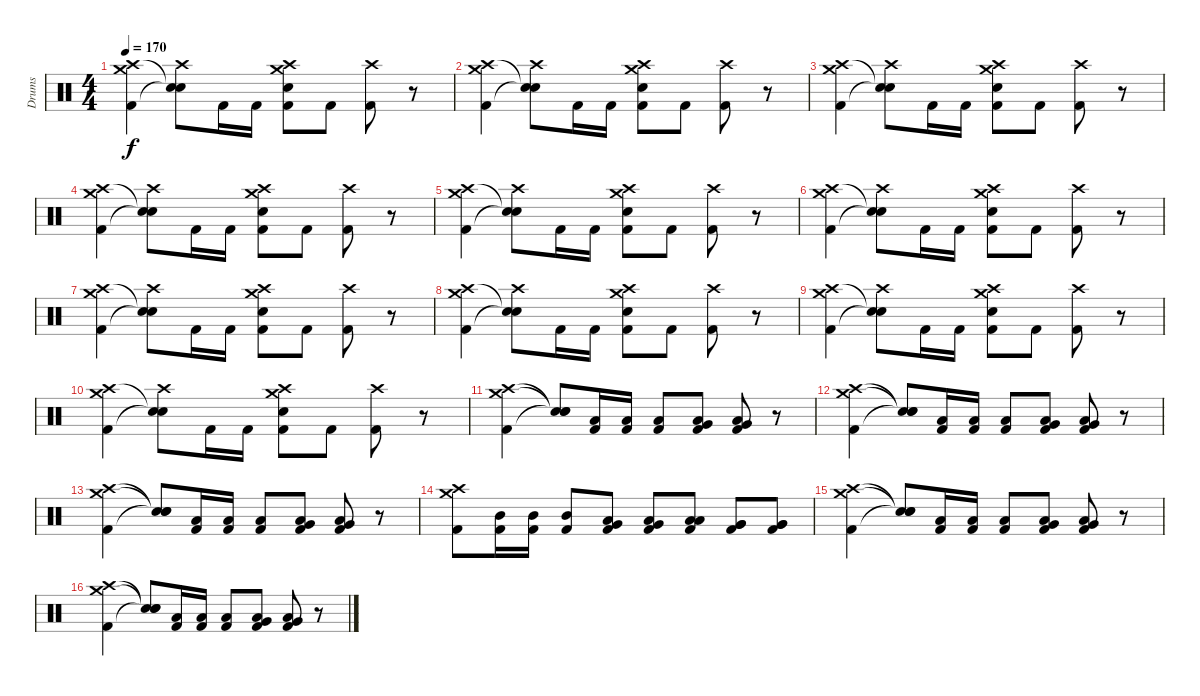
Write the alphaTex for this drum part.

\track ("Drums" "Drums") {instrument percussion}
\staff {score}
\articulation defaults
\ts (4 4)
\tempo 170
\clef neutral
\ks c
("Crash medium (hit)" "Crash high (hit)" "Kick (hit) 2").4{dy f} ("Crash high (hit)" "Snare (hit)"{t} "Snare (hit)"{t}).8 "Kick (hit) 2".16 "Kick (hit) 2".16 ("Crash high (hit)" "Snare (hit) 2" "Crash medium (hit)" "Kick (hit) 2").8 "Kick (hit) 2".8 ("Crash high (hit)" "Kick (hit) 2").8 r.8 |
("Crash medium (hit)" "Crash high (hit)" "Kick (hit) 2").4 ("Crash high (hit)" "Snare (hit)"{t} "Snare (hit)"{t}).8 "Kick (hit) 2".16 "Kick (hit) 2".16 ("Crash high (hit)" "Snare (hit) 2" "Crash medium (hit)" "Kick (hit) 2").8 "Kick (hit) 2".8 ("Crash high (hit)" "Kick (hit) 2").8 r.8 |
("Crash medium (hit)" "Crash high (hit)" "Kick (hit) 2").4 ("Crash high (hit)" "Snare (hit)"{t} "Snare (hit)"{t}).8 "Kick (hit) 2".16 "Kick (hit) 2".16 ("Crash high (hit)" "Snare (hit) 2" "Crash medium (hit)" "Kick (hit) 2").8 "Kick (hit) 2".8 ("Crash high (hit)" "Kick (hit) 2").8 r.8 |
("Crash medium (hit)" "Crash high (hit)" "Kick (hit) 2").4 ("Crash high (hit)" "Snare (hit)"{t} "Snare (hit)"{t}).8 "Kick (hit) 2".16 "Kick (hit) 2".16 ("Crash high (hit)" "Snare (hit) 2" "Crash medium (hit)" "Kick (hit) 2").8 "Kick (hit) 2".8 ("Crash high (hit)" "Kick (hit) 2").8 r.8 |
("Crash medium (hit)" "Crash high (hit)" "Kick (hit) 2").4 ("Crash high (hit)" "Snare (hit)"{t} "Snare (hit)"{t}).8 "Kick (hit) 2".16 "Kick (hit) 2".16 ("Crash high (hit)" "Snare (hit) 2" "Crash medium (hit)" "Kick (hit) 2").8 "Kick (hit) 2".8 ("Crash high (hit)" "Kick (hit) 2").8 r.8 |
("Crash medium (hit)" "Crash high (hit)" "Kick (hit) 2").4 ("Crash high (hit)" "Snare (hit)"{t} "Snare (hit)"{t}).8 "Kick (hit) 2".16 "Kick (hit) 2".16 ("Crash high (hit)" "Snare (hit) 2" "Crash medium (hit)" "Kick (hit) 2").8 "Kick (hit) 2".8 ("Crash high (hit)" "Kick (hit) 2").8 r.8 |
("Crash medium (hit)" "Crash high (hit)" "Kick (hit) 2").4 ("Crash high (hit)" "Snare (hit)"{t} "Snare (hit)"{t}).8 "Kick (hit) 2".16 "Kick (hit) 2".16 ("Crash high (hit)" "Snare (hit) 2" "Crash medium (hit)" "Kick (hit) 2").8 "Kick (hit) 2".8 ("Crash high (hit)" "Kick (hit) 2").8 r.8 |
("Crash medium (hit)" "Crash high (hit)" "Kick (hit) 2").4 ("Crash high (hit)" "Snare (hit)"{t} "Snare (hit)"{t}).8 "Kick (hit) 2".16 "Kick (hit) 2".16 ("Crash high (hit)" "Snare (hit) 2" "Crash medium (hit)" "Kick (hit) 2").8 "Kick (hit) 2".8 ("Crash high (hit)" "Kick (hit) 2").8 r.8 |
("Crash medium (hit)" "Crash high (hit)" "Kick (hit) 2").4 ("Crash high (hit)" "Snare (hit)"{t} "Snare (hit)"{t}).8 "Kick (hit) 2".16 "Kick (hit) 2".16 ("Crash high (hit)" "Snare (hit) 2" "Crash medium (hit)" "Kick (hit) 2").8 "Kick (hit) 2".8 ("Crash high (hit)" "Kick (hit) 2").8 r.8 |
("Crash medium (hit)" "Crash high (hit)" "Kick (hit) 2").4 ("Crash high (hit)" "Snare (hit)"{t} "Snare (hit)"{t}).8 "Kick (hit) 2".16 "Kick (hit) 2".16 ("Crash high (hit)" "Snare (hit) 2" "Crash medium (hit)" "Kick (hit) 2").8 "Kick (hit) 2".8 ("Crash high (hit)" "Kick (hit) 2").8 r.8 |
("Crash medium (hit)" "Crash high (hit)" "Kick (hit) 2").4 ("Snare (hit)"{t} "Snare (hit)"{t} "Snare (hit)"{t}).8 ("Low Tom (hit)" "Kick (hit) 2").16 ("Low Tom (hit)" "Kick (hit) 2").16 ("Low Tom (hit)" "Kick (hit) 2").8 ("Low Tom (hit)" "Very Low Tom (hit)" "Kick (hit) 2").8 ("Low Tom (hit)" "Very Low Tom (hit)" "Kick (hit) 2").8 r.8 |
("Crash medium (hit)" "Crash high (hit)" "Kick (hit) 2").4 ("Snare (hit)"{t} "Snare (hit)"{t} "Snare (hit)"{t}).8 ("Low Tom (hit)" "Kick (hit) 2").16 ("Low Tom (hit)" "Kick (hit) 2").16 ("Low Tom (hit)" "Kick (hit) 2").8 ("Low Tom (hit)" "Very Low Tom (hit)" "Kick (hit) 2").8 ("Low Tom (hit)" "Very Low Tom (hit)" "Kick (hit) 2").8 r.8 |
("Crash medium (hit)" "Crash high (hit)" "Kick (hit) 2").4 ("Snare (hit)"{t} "Snare (hit)"{t} "Snare (hit)"{t}).8 ("Low Tom (hit)" "Kick (hit) 2").16 ("Low Tom (hit)" "Kick (hit) 2").16 ("Low Tom (hit)" "Kick (hit) 2").8 ("Low Tom (hit)" "Very Low Tom (hit)" "Kick (hit) 2").8 ("Low Tom (hit)" "Very Low Tom (hit)" "Kick (hit) 2").8 r.8 |
("Crash medium (hit)" "Crash high (hit)" "Kick (hit) 2").8 ("Mid Tom (hit)" "Kick (hit) 2").16 ("Mid Tom (hit)" "Kick (hit) 2").16 ("Mid Tom (hit)" "Kick (hit) 2").8 ("Low Tom (hit)" "Very Low Tom (hit)" "Kick (hit) 2").8 ("Low Tom (hit)" "Very Low Tom (hit)" "Kick (hit) 2").8 ("Low Tom (hit)" "Low Tom (hit)" "Kick (hit) 2").8 ("Very Low Tom (hit)" "Very Low Tom (hit)" "Kick (hit) 2").8 ("Very Low Tom (hit)" "Very Low Tom (hit)" "Kick (hit) 2").8 |
("Crash medium (hit)" "Crash high (hit)" "Kick (hit) 2").4 ("Snare (hit)"{t} "Snare (hit)"{t} "Snare (hit)"{t}).8 ("Low Tom (hit)" "Kick (hit) 2").16 ("Low Tom (hit)" "Kick (hit) 2").16 ("Low Tom (hit)" "Kick (hit) 2").8 ("Low Tom (hit)" "Very Low Tom (hit)" "Kick (hit) 2").8 ("Low Tom (hit)" "Very Low Tom (hit)" "Kick (hit) 2").8 r.8 |
("Crash medium (hit)" "Crash high (hit)" "Kick (hit) 2").4 ("Snare (hit)"{t} "Snare (hit)"{t} "Snare (hit)"{t}).8 ("Low Tom (hit)" "Kick (hit) 2").16 ("Low Tom (hit)" "Kick (hit) 2").16 ("Low Tom (hit)" "Kick (hit) 2").8 ("Low Tom (hit)" "Very Low Tom (hit)" "Kick (hit) 2").8 ("Low Tom (hit)" "Very Low Tom (hit)" "Kick (hit) 2").8 r.8
